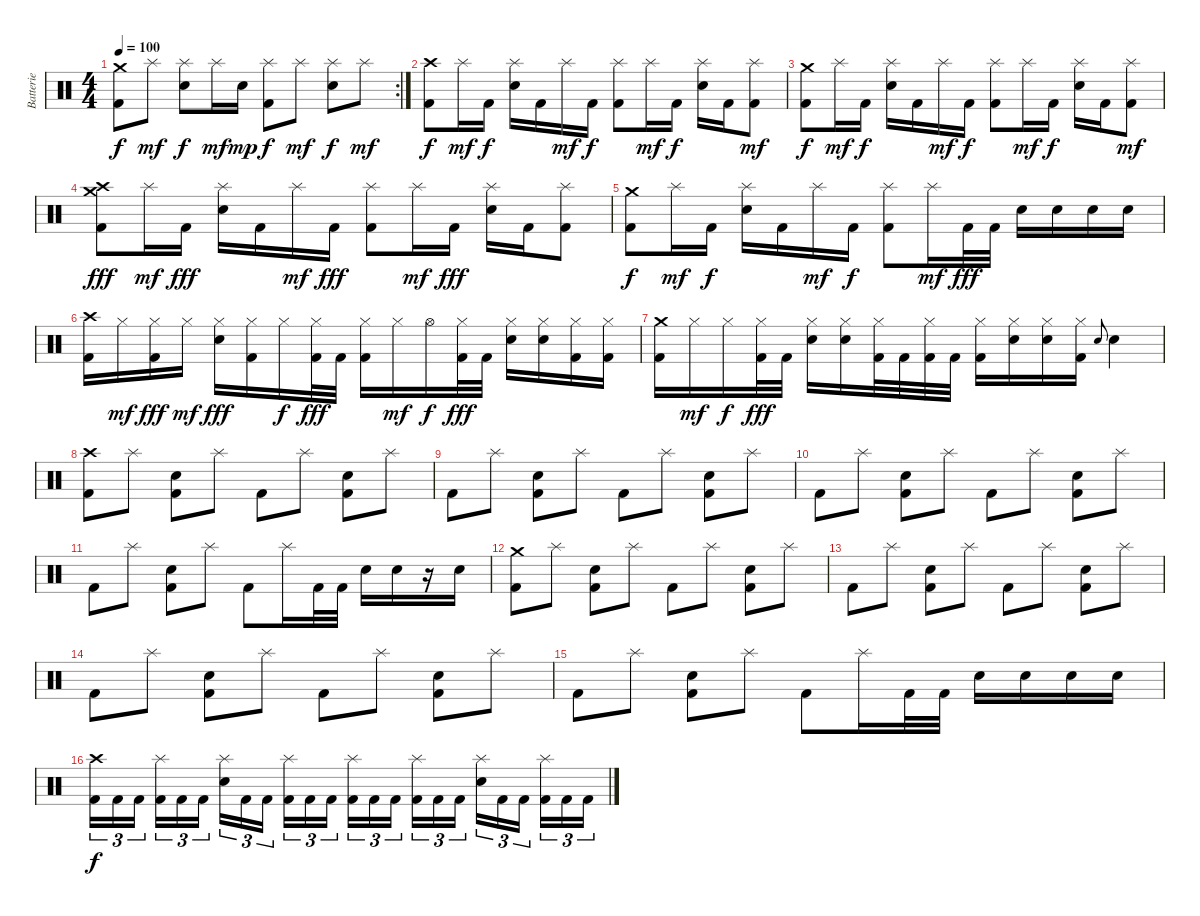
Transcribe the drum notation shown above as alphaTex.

\track ("Batterie" "Batterie") {instrument percussion}
\staff {score}
\articulation defaults
\rc 2
\ts (4 4)
\tempo 100
\clef neutral
\ks c
("Crash medium (hit)" "Kick (hit) 2").8{dy f} "Splash (hit)".8{dy mf} ("Splash (hit)" "Electric Snare (hit)").8{dy f} "Splash (hit)".16{dy mf} "Electric Snare (hit)".16{dy mp} ("Splash (hit)" "Kick (hit) 2").8{dy f} "Splash (hit)".8{dy mf} ("Splash (hit)" "Electric Snare (hit)").8{dy f} "Splash (hit)".8{dy mf} |
("Crash high (hit)" "Kick (hit) 2").8{dy f} "Splash (hit)".16{dy mf} "Kick (hit) 2".16{dy f} ("Splash (hit)" "Electric Snare (hit)").16 "Kick (hit) 2".16 "Splash (hit)".16{dy mf} "Kick (hit) 2".16{dy f} ("Splash (hit)" "Kick (hit) 2").8 "Splash (hit)".16{dy mf} "Kick (hit) 2".16{dy f} ("Splash (hit)" "Electric Snare (hit)").16 "Kick (hit) 2".16 ("Splash (hit)" "Kick (hit) 2").8{dy mf} |
("Crash medium (hit)" "Kick (hit) 2").8{dy f} "Splash (hit)".16{dy mf} "Kick (hit) 2".16{dy f} ("Splash (hit)" "Electric Snare (hit)").16 "Kick (hit) 2".16 "Splash (hit)".16{dy mf} "Kick (hit) 2".16{dy f} ("Splash (hit)" "Kick (hit) 2").8 "Splash (hit)".16{dy mf} "Kick (hit) 2".16{dy f} ("Splash (hit)" "Electric Snare (hit)").16 "Kick (hit) 2".16 ("Splash (hit)" "Kick (hit) 2").8{dy mf} |
("Crash high (hit)" "Crash medium (hit)" "Kick (hit) 2").8{dy fff} "Splash (hit)".16{dy mf} "Kick (hit) 2".16{dy fff} ("Splash (hit)" "Electric Snare (hit)").16 "Kick (hit) 2".16 "Splash (hit)".16{dy mf} "Kick (hit) 2".16{dy fff} ("Splash (hit)" "Kick (hit) 2").8 "Splash (hit)".16{dy mf} "Kick (hit) 2".16{dy fff} ("Splash (hit)" "Electric Snare (hit)").16 "Kick (hit) 2".16 ("Splash (hit)" "Kick (hit) 2").8 |
("Crash medium (hit)" "Kick (hit) 2").8{dy f} "Splash (hit)".16{dy mf} "Kick (hit) 2".16{dy f} ("Splash (hit)" "Electric Snare (hit)").16 "Kick (hit) 2".16 "Splash (hit)".16{dy mf} "Kick (hit) 2".16{dy f} ("Splash (hit)" "Kick (hit) 2").8 "Splash (hit)".16{dy mf} "Kick (hit) 2".32{dy fff} "Kick (hit) 2".32 "Electric Snare (hit)".16 "Electric Snare (hit)".16 "Electric Snare (hit)".16 "Electric Snare (hit)".16 |
("Crash high (hit)" "Kick (hit) 2").16 "Hi-Hat (closed)".16{dy mf} ("Hi-Hat (closed)" "Kick (hit) 2").16{dy fff} "Hi-Hat (closed)".16{dy mf} ("Hi-Hat (closed)" "Electric Snare (hit)").16{dy fff} ("Hi-Hat (closed)" "Kick (hit) 2").16 "Hi-Hat (closed)".16{dy f} ("Hi-Hat (closed)" "Kick (hit) 2").32{dy fff} "Kick (hit) 2".32 ("Hi-Hat (closed)" "Kick (hit) 2").16 "Hi-Hat (closed)".16{dy mf} "Hi-Hat (open)".16{dy f} ("Hi-Hat (closed)" "Kick (hit) 2").32{dy fff} "Kick (hit) 2".32 ("Hi-Hat (closed)" "Electric Snare (hit)").16 ("Hi-Hat (closed)" "Electric Snare (hit)").16 ("Hi-Hat (closed)" "Kick (hit) 2").16 ("Hi-Hat (closed)" "Kick (hit) 2").16 |
("Crash medium (hit)" "Kick (hit) 2").16 "Hi-Hat (closed)".16{dy mf} "Hi-Hat (closed)".16{dy f} ("Hi-Hat (closed)" "Kick (hit) 2").32{dy fff} "Kick (hit) 2".32 ("Hi-Hat (closed)" "Electric Snare (hit)").16 ("Hi-Hat (closed)" "Electric Snare (hit)").16 ("Hi-Hat (closed)" "Kick (hit) 2").32 "Kick (hit) 2".32 ("Hi-Hat (closed)" "Kick (hit) 2").32 "Kick (hit) 2".32 ("Hi-Hat (closed)" "Kick (hit) 2").16 ("Hi-Hat (closed)" "Electric Snare (hit)").16 ("Hi-Hat (closed)" "Electric Snare (hit)").16 ("Hi-Hat (closed)" "Kick (hit) 2").16 "Electric Snare (hit)".8{gr onbeat} "Electric Snare (hit)".4 |
("Crash high (hit)" "Kick (hit) 2").8 "Splash (hit)".8 ("Electric Snare (hit)" "Kick (hit) 2").8 "Splash (hit)".8 "Kick (hit) 2".8 "Splash (hit)".8 ("Electric Snare (hit)" "Kick (hit) 2").8 "Splash (hit)".8 |
"Kick (hit) 2".8 "Splash (hit)".8 ("Electric Snare (hit)" "Kick (hit) 2").8 "Splash (hit)".8 "Kick (hit) 2".8 "Splash (hit)".8 ("Electric Snare (hit)" "Kick (hit) 2").8 "Splash (hit)".8 |
"Kick (hit) 2".8 "Splash (hit)".8 ("Electric Snare (hit)" "Kick (hit) 2").8 "Splash (hit)".8 "Kick (hit) 2".8 "Splash (hit)".8 ("Electric Snare (hit)" "Kick (hit) 2").8 "Splash (hit)".8 |
"Kick (hit) 2".8 "Splash (hit)".8 ("Electric Snare (hit)" "Kick (hit) 2").8 "Splash (hit)".8 "Kick (hit) 2".8 "Splash (hit)".16 "Kick (hit) 2".32 "Kick (hit) 2".32 "Electric Snare (hit)".16 "Electric Snare (hit)".16 r.16 "Electric Snare (hit)".16 |
("Crash medium (hit)" "Kick (hit) 2").8 "Splash (hit)".8 ("Electric Snare (hit)" "Kick (hit) 2").8 "Splash (hit)".8 "Kick (hit) 2".8 "Splash (hit)".8 ("Electric Snare (hit)" "Kick (hit) 2").8 "Splash (hit)".8 |
"Kick (hit) 2".8 "Splash (hit)".8 ("Electric Snare (hit)" "Kick (hit) 2").8 "Splash (hit)".8 "Kick (hit) 2".8 "Splash (hit)".8 ("Electric Snare (hit)" "Kick (hit) 2").8 "Splash (hit)".8 |
"Kick (hit) 2".8 "Splash (hit)".8 ("Electric Snare (hit)" "Kick (hit) 2").8 "Splash (hit)".8 "Kick (hit) 2".8 "Splash (hit)".8 ("Electric Snare (hit)" "Kick (hit) 2").8 "Splash (hit)".8 |
"Kick (hit) 2".8 "Splash (hit)".8 ("Electric Snare (hit)" "Kick (hit) 2").8 "Splash (hit)".8 "Kick (hit) 2".8 "Splash (hit)".16 "Kick (hit) 2".32 "Kick (hit) 2".32 "Electric Snare (hit)".16 "Electric Snare (hit)".16 "Electric Snare (hit)".16 "Electric Snare (hit)".16 |
("Crash high (hit)" "Kick (hit) 2").16{tu (3 2) dy f} "Kick (hit) 2".16{tu (3 2)} "Kick (hit) 2".16{tu (3 2) beam splitsecondary} ("Splash (hit)" "Kick (hit) 2").16{tu (3 2)} "Kick (hit) 2".16{tu (3 2)} "Kick (hit) 2".16{tu (3 2)} ("Splash (hit)" "Electric Snare (hit)").16{tu (3 2)} "Kick (hit) 2".16{tu (3 2)} "Kick (hit) 2".16{tu (3 2) beam splitsecondary} ("Splash (hit)" "Kick (hit) 2").16{tu (3 2)} "Kick (hit) 2".16{tu (3 2)} "Kick (hit) 2".16{tu (3 2)} ("Splash (hit)" "Kick (hit) 2").16{tu (3 2)} "Kick (hit) 2".16{tu (3 2)} "Kick (hit) 2".16{tu (3 2) beam splitsecondary} ("Splash (hit)" "Kick (hit) 2").16{tu (3 2)} "Kick (hit) 2".16{tu (3 2)} "Kick (hit) 2".16{tu (3 2)} ("Splash (hit)" "Electric Snare (hit)").16{tu (3 2)} "Kick (hit) 2".16{tu (3 2)} "Kick (hit) 2".16{tu (3 2) beam splitsecondary} ("Splash (hit)" "Kick (hit) 2").16{tu (3 2)} "Kick (hit) 2".16{tu (3 2)} "Kick (hit) 2".16{tu (3 2)}
